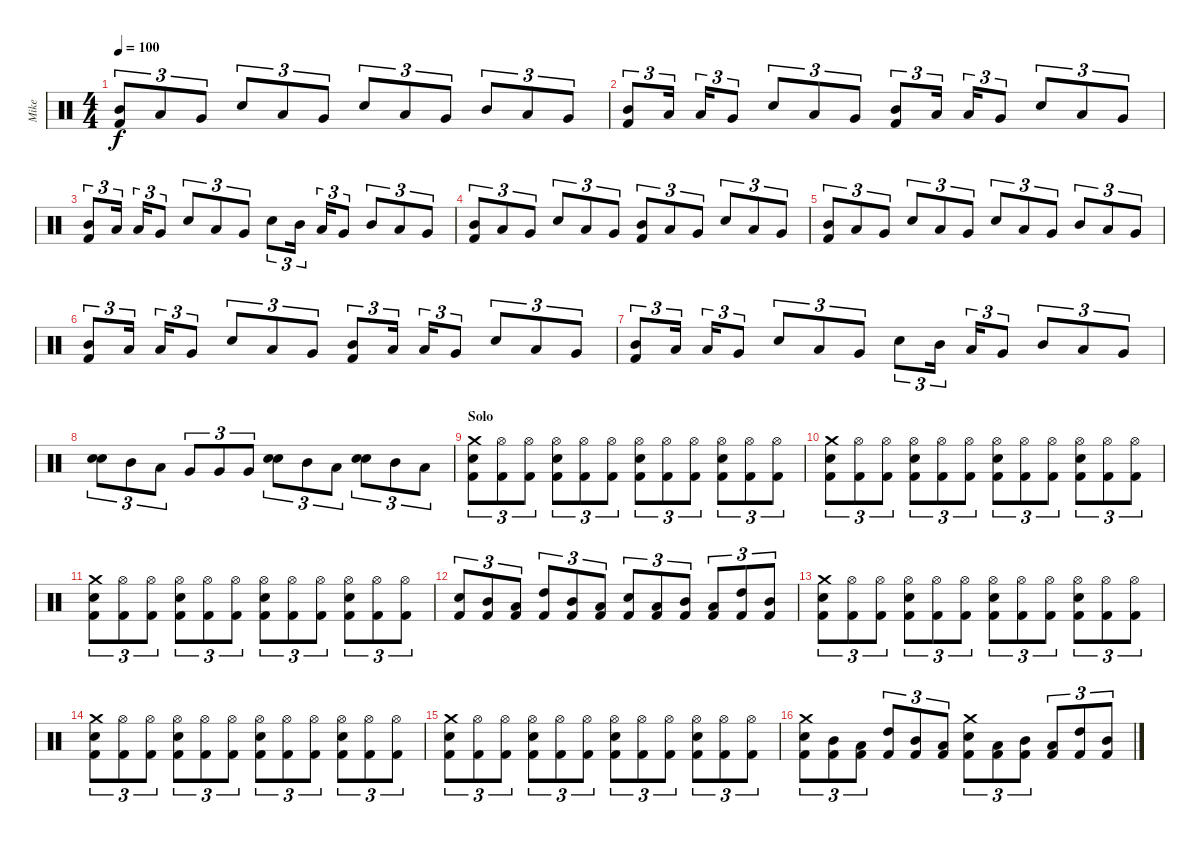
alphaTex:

\track ("Mike" "Mike") {instrument percussion}
\staff {score}
\articulation defaults
\ts (4 4)
\tempo 100
\clef neutral
\ks c
("Mid Tom (hit)" "Kick (hit) 2").8{tu (3 2) dy f} "Low Tom (hit)".8{tu (3 2)} "Very Low Tom (hit)".8{tu (3 2)} "Electric Snare (hit)".8{tu (3 2)} "Low Tom (hit)".8{tu (3 2)} "Very Low Tom (hit)".8{tu (3 2)} "Electric Snare (hit)".8{tu (3 2)} "Low Tom (hit)".8{tu (3 2)} "Very Low Tom (hit)".8{tu (3 2)} "Mid Tom (hit)".8{tu (3 2)} "Low Tom (hit)".8{tu (3 2)} "Very Low Tom (hit)".8{tu (3 2)} |
("Mid Tom (hit)" "Kick (hit) 2").8{tu (3 2)} "Low Tom (hit)".16{tu (3 2)} "Low Tom (hit)".16{tu (3 2)} "Very Low Tom (hit)".8{tu (3 2)} "Electric Snare (hit)".8{tu (3 2)} "Low Tom (hit)".8{tu (3 2)} "Very Low Tom (hit)".8{tu (3 2)} ("Mid Tom (hit)" "Kick (hit) 2").8{tu (3 2)} "Low Tom (hit)".16{tu (3 2)} "Low Tom (hit)".16{tu (3 2)} "Very Low Tom (hit)".8{tu (3 2)} "Electric Snare (hit)".8{tu (3 2)} "Low Tom (hit)".8{tu (3 2)} "Very Low Tom (hit)".8{tu (3 2)} |
("Mid Tom (hit)" "Kick (hit) 2").8{tu (3 2)} "Low Tom (hit)".16{tu (3 2)} "Low Tom (hit)".16{tu (3 2)} "Very Low Tom (hit)".8{tu (3 2)} "Electric Snare (hit)".8{tu (3 2)} "Low Tom (hit)".8{tu (3 2)} "Very Low Tom (hit)".8{tu (3 2)} "Electric Snare (hit)".8{tu (3 2)} "Mid Tom (hit)".16{tu (3 2)} "Low Tom (hit)".16{tu (3 2)} "Very Low Tom (hit)".8{tu (3 2)} "Mid Tom (hit)".8{tu (3 2)} "Low Tom (hit)".8{tu (3 2)} "Very Low Tom (hit)".8{tu (3 2)} |
("Mid Tom (hit)" "Kick (hit) 2").8{tu (3 2)} "Low Tom (hit)".8{tu (3 2)} "Very Low Tom (hit)".8{tu (3 2)} "Electric Snare (hit)".8{tu (3 2)} "Low Tom (hit)".8{tu (3 2)} "Very Low Tom (hit)".8{tu (3 2)} ("Mid Tom (hit)" "Kick (hit) 2").8{tu (3 2)} "Low Tom (hit)".8{tu (3 2)} "Very Low Tom (hit)".8{tu (3 2)} "Electric Snare (hit)".8{tu (3 2)} "Low Tom (hit)".8{tu (3 2)} "Very Low Tom (hit)".8{tu (3 2)} |
("Mid Tom (hit)" "Kick (hit) 2").8{tu (3 2)} "Low Tom (hit)".8{tu (3 2)} "Very Low Tom (hit)".8{tu (3 2)} "Electric Snare (hit)".8{tu (3 2)} "Low Tom (hit)".8{tu (3 2)} "Very Low Tom (hit)".8{tu (3 2)} "Electric Snare (hit)".8{tu (3 2)} "Low Tom (hit)".8{tu (3 2)} "Very Low Tom (hit)".8{tu (3 2)} "Mid Tom (hit)".8{tu (3 2)} "Low Tom (hit)".8{tu (3 2)} "Very Low Tom (hit)".8{tu (3 2)} |
("Mid Tom (hit)" "Kick (hit) 2").8{tu (3 2)} "Low Tom (hit)".16{tu (3 2)} "Low Tom (hit)".16{tu (3 2)} "Very Low Tom (hit)".8{tu (3 2)} "Electric Snare (hit)".8{tu (3 2)} "Low Tom (hit)".8{tu (3 2)} "Very Low Tom (hit)".8{tu (3 2)} ("Mid Tom (hit)" "Kick (hit) 2").8{tu (3 2)} "Low Tom (hit)".16{tu (3 2)} "Low Tom (hit)".16{tu (3 2)} "Very Low Tom (hit)".8{tu (3 2)} "Electric Snare (hit)".8{tu (3 2)} "Low Tom (hit)".8{tu (3 2)} "Very Low Tom (hit)".8{tu (3 2)} |
("Mid Tom (hit)" "Kick (hit) 2").8{tu (3 2)} "Low Tom (hit)".16{tu (3 2)} "Low Tom (hit)".16{tu (3 2)} "Very Low Tom (hit)".8{tu (3 2)} "Electric Snare (hit)".8{tu (3 2)} "Low Tom (hit)".8{tu (3 2)} "Very Low Tom (hit)".8{tu (3 2)} "Electric Snare (hit)".8{tu (3 2)} "Mid Tom (hit)".16{tu (3 2)} "Low Tom (hit)".16{tu (3 2)} "Very Low Tom (hit)".8{tu (3 2)} "Mid Tom (hit)".8{tu (3 2)} "Low Tom (hit)".8{tu (3 2)} "Very Low Tom (hit)".8{tu (3 2)} |
("Electric Snare (hit)" "Electric Snare (hit)").8{tu (3 2) bu 240} "Mid Tom (hit)".8{tu (3 2)} "Low Tom (hit)".8{tu (3 2)} "Very Low Tom (hit)".8{tu (3 2)} "Very Low Tom (hit)".8{tu (3 2)} "Very Low Tom (hit)".8{tu (3 2)} ("Electric Snare (hit)" "Electric Snare (hit)").8{tu (3 2) bu 240} "Mid Tom (hit)".8{tu (3 2)} "Low Tom (hit)".8{tu (3 2)} ("Electric Snare (hit)" "Electric Snare (hit)").8{tu (3 2) bu 240} "Mid Tom (hit)".8{tu (3 2)} "Low Tom (hit)".8{tu (3 2)} |
\section ("" "Solo")
("Crash medium (hit)" "Electric Snare (hit)" "Kick (hit) 2").8{tu (3 2)} ("Hi-Hat (open)" "Kick (hit) 2").8{tu (3 2)} ("Hi-Hat (open)" "Kick (hit) 2").8{tu (3 2)} ("Electric Snare (hit)" "Hi-Hat (open)" "Kick (hit) 2").8{tu (3 2)} ("Hi-Hat (open)" "Kick (hit) 2").8{tu (3 2)} ("Hi-Hat (open)" "Kick (hit) 2").8{tu (3 2)} ("Electric Snare (hit)" "Hi-Hat (open)" "Kick (hit) 2").8{tu (3 2)} ("Hi-Hat (open)" "Kick (hit) 2").8{tu (3 2)} ("Hi-Hat (open)" "Kick (hit) 2").8{tu (3 2)} ("Electric Snare (hit)" "Hi-Hat (open)" "Kick (hit) 2").8{tu (3 2)} ("Hi-Hat (open)" "Kick (hit) 2").8{tu (3 2)} ("Hi-Hat (open)" "Kick (hit) 2").8{tu (3 2)} |
("Crash medium (hit)" "Electric Snare (hit)" "Kick (hit) 2").8{tu (3 2)} ("Hi-Hat (open)" "Kick (hit) 2").8{tu (3 2)} ("Hi-Hat (open)" "Kick (hit) 2").8{tu (3 2)} ("Electric Snare (hit)" "Hi-Hat (open)" "Kick (hit) 2").8{tu (3 2)} ("Hi-Hat (open)" "Kick (hit) 2").8{tu (3 2)} ("Hi-Hat (open)" "Kick (hit) 2").8{tu (3 2)} ("Electric Snare (hit)" "Hi-Hat (open)" "Kick (hit) 2").8{tu (3 2)} ("Hi-Hat (open)" "Kick (hit) 2").8{tu (3 2)} ("Hi-Hat (open)" "Kick (hit) 2").8{tu (3 2)} ("Electric Snare (hit)" "Hi-Hat (open)" "Kick (hit) 2").8{tu (3 2)} ("Hi-Hat (open)" "Kick (hit) 2").8{tu (3 2)} ("Hi-Hat (open)" "Kick (hit) 2").8{tu (3 2)} |
("Crash medium (hit)" "Electric Snare (hit)" "Kick (hit) 2").8{tu (3 2)} ("Hi-Hat (open)" "Kick (hit) 2").8{tu (3 2)} ("Hi-Hat (open)" "Kick (hit) 2").8{tu (3 2)} ("Electric Snare (hit)" "Hi-Hat (open)" "Kick (hit) 2").8{tu (3 2)} ("Hi-Hat (open)" "Kick (hit) 2").8{tu (3 2)} ("Hi-Hat (open)" "Kick (hit) 2").8{tu (3 2)} ("Electric Snare (hit)" "Hi-Hat (open)" "Kick (hit) 2").8{tu (3 2)} ("Hi-Hat (open)" "Kick (hit) 2").8{tu (3 2)} ("Hi-Hat (open)" "Kick (hit) 2").8{tu (3 2)} ("Electric Snare (hit)" "Hi-Hat (open)" "Kick (hit) 2").8{tu (3 2)} ("Hi-Hat (open)" "Kick (hit) 2").8{tu (3 2)} ("Hi-Hat (open)" "Kick (hit) 2").8{tu (3 2)} |
("Electric Snare (hit)" "Kick (hit) 2").8{tu (3 2)} ("Mid Tom (hit)" "Kick (hit) 2").8{tu (3 2)} ("Low Tom (hit)" "Kick (hit) 2").8{tu (3 2)} ("High Tom (hit)" "Kick (hit) 2").8{tu (3 2)} ("Mid Tom (hit)" "Kick (hit) 2").8{tu (3 2)} ("Low Tom (hit)" "Kick (hit) 2").8{tu (3 2)} ("Electric Snare (hit)" "Kick (hit) 2").8{tu (3 2)} ("Low Tom (hit)" "Kick (hit) 2").8{tu (3 2)} ("Mid Tom (hit)" "Kick (hit) 2").8{tu (3 2)} ("Low Tom (hit)" "Kick (hit) 2").8{tu (3 2)} ("High Tom (hit)" "Kick (hit) 2").8{tu (3 2)} ("Mid Tom (hit)" "Kick (hit) 2").8{tu (3 2)} |
("Crash medium (hit)" "Electric Snare (hit)" "Kick (hit) 2").8{tu (3 2)} ("Hi-Hat (open)" "Kick (hit) 2").8{tu (3 2)} ("Hi-Hat (open)" "Kick (hit) 2").8{tu (3 2)} ("Electric Snare (hit)" "Hi-Hat (open)" "Kick (hit) 2").8{tu (3 2)} ("Hi-Hat (open)" "Kick (hit) 2").8{tu (3 2)} ("Hi-Hat (open)" "Kick (hit) 2").8{tu (3 2)} ("Electric Snare (hit)" "Hi-Hat (open)" "Kick (hit) 2").8{tu (3 2)} ("Hi-Hat (open)" "Kick (hit) 2").8{tu (3 2)} ("Hi-Hat (open)" "Kick (hit) 2").8{tu (3 2)} ("Electric Snare (hit)" "Hi-Hat (open)" "Kick (hit) 2").8{tu (3 2)} ("Hi-Hat (open)" "Kick (hit) 2").8{tu (3 2)} ("Hi-Hat (open)" "Kick (hit) 2").8{tu (3 2)} |
("Crash medium (hit)" "Electric Snare (hit)" "Kick (hit) 2").8{tu (3 2)} ("Hi-Hat (open)" "Kick (hit) 2").8{tu (3 2)} ("Hi-Hat (open)" "Kick (hit) 2").8{tu (3 2)} ("Electric Snare (hit)" "Hi-Hat (open)" "Kick (hit) 2").8{tu (3 2)} ("Hi-Hat (open)" "Kick (hit) 2").8{tu (3 2)} ("Hi-Hat (open)" "Kick (hit) 2").8{tu (3 2)} ("Electric Snare (hit)" "Hi-Hat (open)" "Kick (hit) 2").8{tu (3 2)} ("Hi-Hat (open)" "Kick (hit) 2").8{tu (3 2)} ("Hi-Hat (open)" "Kick (hit) 2").8{tu (3 2)} ("Electric Snare (hit)" "Hi-Hat (open)" "Kick (hit) 2").8{tu (3 2)} ("Hi-Hat (open)" "Kick (hit) 2").8{tu (3 2)} ("Hi-Hat (open)" "Kick (hit) 2").8{tu (3 2)} |
("Crash medium (hit)" "Electric Snare (hit)" "Kick (hit) 2").8{tu (3 2)} ("Hi-Hat (open)" "Kick (hit) 2").8{tu (3 2)} ("Hi-Hat (open)" "Kick (hit) 2").8{tu (3 2)} ("Electric Snare (hit)" "Hi-Hat (open)" "Kick (hit) 2").8{tu (3 2)} ("Hi-Hat (open)" "Kick (hit) 2").8{tu (3 2)} ("Hi-Hat (open)" "Kick (hit) 2").8{tu (3 2)} ("Electric Snare (hit)" "Hi-Hat (open)" "Kick (hit) 2").8{tu (3 2)} ("Hi-Hat (open)" "Kick (hit) 2").8{tu (3 2)} ("Hi-Hat (open)" "Kick (hit) 2").8{tu (3 2)} ("Electric Snare (hit)" "Hi-Hat (open)" "Kick (hit) 2").8{tu (3 2)} ("Hi-Hat (open)" "Kick (hit) 2").8{tu (3 2)} ("Hi-Hat (open)" "Kick (hit) 2").8{tu (3 2)} |
("Crash medium (hit)" "Electric Snare (hit)" "Kick (hit) 2").8{tu (3 2)} ("Mid Tom (hit)" "Kick (hit) 2").8{tu (3 2)} ("Low Tom (hit)" "Kick (hit) 2").8{tu (3 2)} ("High Tom (hit)" "Kick (hit) 2").8{tu (3 2)} ("Mid Tom (hit)" "Kick (hit) 2").8{tu (3 2)} ("Low Tom (hit)" "Kick (hit) 2").8{tu (3 2)} ("Crash medium (hit)" "Electric Snare (hit)" "Kick (hit) 2").8{tu (3 2)} ("Low Tom (hit)" "Kick (hit) 2").8{tu (3 2)} ("Mid Tom (hit)" "Kick (hit) 2").8{tu (3 2)} ("Low Tom (hit)" "Kick (hit) 2").8{tu (3 2)} ("High Tom (hit)" "Kick (hit) 2").8{tu (3 2)} ("Mid Tom (hit)" "Kick (hit) 2").8{tu (3 2)}
